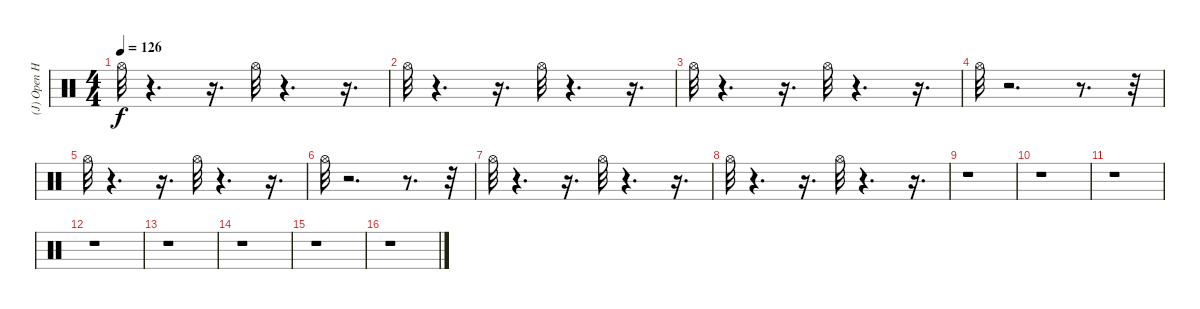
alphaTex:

\track ("(J) Open Hi Hat" "(J) Open H") {instrument percussion}
\staff {score}
\articulation defaults
\ts (4 4)
\tempo 126
\clef neutral
\ks c "Hi-Hat (open)".32{dy f}
r.4{d} r.16{d} "Hi-Hat (open)".32 r.4{d} r.16{d} |
"Hi-Hat (open)".32 r.4{d} r.16{d} "Hi-Hat (open)".32 r.4{d} r.16{d} |
"Hi-Hat (open)".32 r.4{d} r.16{d} "Hi-Hat (open)".32 r.4{d} r.16{d} |
"Hi-Hat (open)".32 r.2{d} r.8{d} r.32 |
"Hi-Hat (open)".32 r.4{d} r.16{d} "Hi-Hat (open)".32 r.4{d} r.16{d} |
"Hi-Hat (open)".32 r.2{d} r.8{d} r.32 |
"Hi-Hat (open)".32 r.4{d} r.16{d} "Hi-Hat (open)".32 r.4{d} r.16{d} |
"Hi-Hat (open)".32 r.4{d} r.16{d} "Hi-Hat (open)".32 r.4{d} r.16{d} |
r.1 |
r.1 |
r.1 |
r.1 |
r.1 |
r.1 |
r.1 |
r.1
